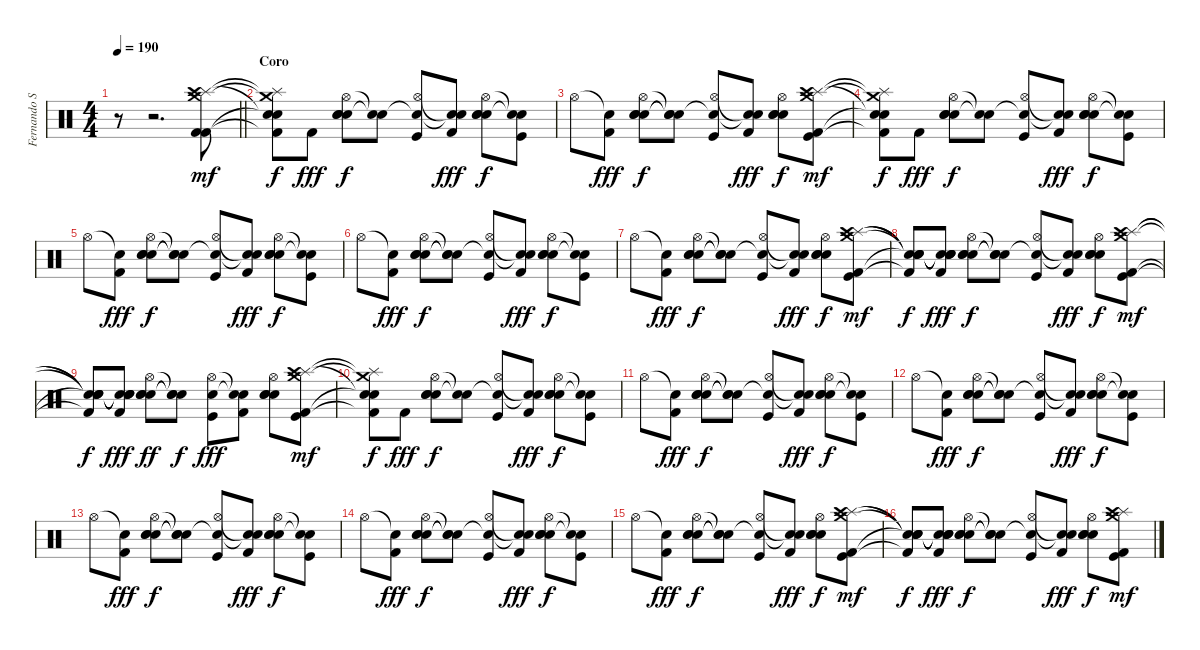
\track ("Fernando Scarcella" "Fernando S") {instrument percussion}
\staff {score}
\articulation defaults
\ts (4 4)
\tempo 190
\clef neutral
\barLineRight lightlight
\ks c
r.8{dy f} r.2{d} ("Crash medium (hit)" "Splash (hit)" "Crash high (hit)" "Kick (hit) 2" "Kick (hit) 2").8{dy mf} |
\section ("" "Coro")
("Crash medium (hit)"{t} "Splash (hit)"{t} "Snare (hit)"{t} "Snare (hit)"{t} "Kick (hit) 2"{t}).8{dy f} "Kick (hit) 2".8{dy fff} ("Hi-Hat (open)" "Electric Snare (hit)" "Electric Snare (hit)" "Electric Snare (hit)").8{dy f} ("Snare (hit)"{t} "Snare (hit)"{t}).8 ("Hi-Hat (open)" "Snare (hit)"{t} "Kick (hit)").8 ("Snare (hit)"{t} "Snare (hit)"{t} "Kick (hit) 2").8{dy fff} ("Hi-Hat (open)" "Electric Snare (hit)" "Electric Snare (hit)" "Electric Snare (hit)").8{dy f} ("Snare (hit)"{t} "Snare (hit)"{t} "Kick (hit)").8 |
"Hi-Hat (open)".8 ("Snare (hit)"{t} "Kick (hit) 2").8{dy fff} ("Hi-Hat (open)" "Electric Snare (hit)" "Electric Snare (hit)" "Electric Snare (hit)").8{dy f} ("Snare (hit)"{t} "Snare (hit)"{t} "Snare (hit)"{t}).8 ("Hi-Hat (open)" "Snare (hit)"{t} "Kick (hit)").8 ("Snare (hit)"{t} "Snare (hit)"{t} "Kick (hit) 2").8{dy fff} ("Hi-Hat (open)" "Electric Snare (hit)" "Electric Snare (hit)" "Electric Snare (hit)").8{dy f} ("Crash medium (hit)" "Splash (hit)" "Crash high (hit)" "Kick (hit) 2" "Kick (hit)").8{dy mf} |
("Crash medium (hit)"{t} "Splash (hit)"{t} "Snare (hit)"{t} "Snare (hit)"{t} "Kick (hit) 2"{t}).8{dy f} "Kick (hit) 2".8{dy fff} ("Hi-Hat (open)" "Electric Snare (hit)" "Electric Snare (hit)" "Electric Snare (hit)").8{dy f} ("Snare (hit)"{t} "Snare (hit)"{t}).8 ("Hi-Hat (open)" "Snare (hit)"{t} "Kick (hit)").8 ("Snare (hit)"{t} "Snare (hit)"{t} "Kick (hit) 2").8{dy fff} ("Hi-Hat (open)" "Electric Snare (hit)" "Electric Snare (hit)" "Electric Snare (hit)").8{dy f} ("Snare (hit)"{t} "Snare (hit)"{t} "Kick (hit)").8 |
"Hi-Hat (open)".8 ("Snare (hit)"{t} "Kick (hit) 2").8{dy fff} ("Hi-Hat (open)" "Electric Snare (hit)" "Electric Snare (hit)" "Electric Snare (hit)").8{dy f} ("Snare (hit)"{t} "Snare (hit)"{t} "Snare (hit)"{t}).8 ("Hi-Hat (open)" "Snare (hit)"{t} "Kick (hit)").8 ("Snare (hit)"{t} "Snare (hit)"{t} "Kick (hit) 2").8{dy fff} ("Hi-Hat (open)" "Electric Snare (hit)" "Electric Snare (hit)" "Electric Snare (hit)").8{dy f} ("Snare (hit)"{t} "Snare (hit)"{t} "Kick (hit)").8 |
"Hi-Hat (open)".8 ("Snare (hit)"{t} "Kick (hit) 2").8{dy fff} ("Hi-Hat (open)" "Electric Snare (hit)" "Electric Snare (hit)" "Electric Snare (hit)").8{dy f} ("Snare (hit)"{t} "Snare (hit)"{t} "Snare (hit)"{t}).8 ("Hi-Hat (open)" "Snare (hit)"{t} "Kick (hit)").8 ("Snare (hit)"{t} "Snare (hit)"{t} "Kick (hit) 2").8{dy fff} ("Hi-Hat (open)" "Electric Snare (hit)" "Electric Snare (hit)" "Electric Snare (hit)").8{dy f} ("Snare (hit)"{t} "Snare (hit)"{t} "Kick (hit)").8 |
"Hi-Hat (open)".8 ("Snare (hit)"{t} "Kick (hit) 2").8{dy fff} ("Hi-Hat (open)" "Electric Snare (hit)" "Electric Snare (hit)" "Electric Snare (hit)").8{dy f} ("Snare (hit)"{t} "Snare (hit)"{t} "Snare (hit)"{t}).8 ("Hi-Hat (open)" "Snare (hit)"{t} "Kick (hit)").8 ("Snare (hit)"{t} "Snare (hit)"{t} "Kick (hit) 2").8{dy fff} ("Hi-Hat (open)" "Electric Snare (hit)" "Electric Snare (hit)" "Electric Snare (hit)").8{dy f} ("Crash medium (hit)" "Splash (hit)" "Crash high (hit)" "Kick (hit) 2" "Kick (hit)").8{dy mf} |
("Snare (hit)"{t} "Snare (hit)"{t} "Snare (hit)"{t} "Snare (hit)"{t} "Kick (hit) 2"{t}).8{dy f} ("Snare (hit)"{t} "Snare (hit)"{t} "Snare (hit)"{t} "Snare (hit)"{t} "Kick (hit) 2").8{dy fff} ("Hi-Hat (open)" "Electric Snare (hit)" "Electric Snare (hit)" "Electric Snare (hit)").8{dy f} ("Snare (hit)"{t} "Snare (hit)"{t} "Snare (hit)"{t}).8 ("Hi-Hat (open)" "Snare (hit)"{t} "Kick (hit)").8 ("Snare (hit)"{t} "Snare (hit)"{t} "Kick (hit) 2").8{dy fff} ("Hi-Hat (open)" "Electric Snare (hit)" "Electric Snare (hit)" "Electric Snare (hit)").8{dy f} ("Crash medium (hit)" "Splash (hit)" "Crash high (hit)" "Kick (hit) 2" "Kick (hit)").8{dy mf} |
("Snare (hit)"{t} "Snare (hit)"{t} "Snare (hit)"{t} "Snare (hit)"{t} "Kick (hit) 2"{t}).8{dy f} ("Snare (hit)"{t} "Snare (hit)"{t} "Snare (hit)"{t} "Snare (hit)"{t} "Kick (hit) 2").8{dy fff} ("Hi-Hat (open)" "Electric Snare (hit)" "Electric Snare (hit)" "Electric Snare (hit)").8{dy ff} ("Snare (hit)"{t} "Snare (hit)"{t} "Snare (hit)"{t}).8{dy f} ("Hi-Hat (open)" "Electric Snare (hit)" "Kick (hit)").8{dy fff} ("Snare (hit)"{t} "Snare (hit)"{t} "Kick (hit) 2").8 ("Hi-Hat (open)" "Electric Snare (hit)" "Electric Snare (hit)" "Electric Snare (hit)").8 ("Crash medium (hit)" "Splash (hit)" "Crash high (hit)" "Kick (hit) 2" "Kick (hit)").8{dy mf} |
("Crash medium (hit)"{t} "Splash (hit)"{t} "Snare (hit)"{t} "Snare (hit)"{t} "Kick (hit) 2"{t}).8{dy f} "Kick (hit) 2".8{dy fff} ("Hi-Hat (open)" "Electric Snare (hit)" "Electric Snare (hit)" "Electric Snare (hit)").8{dy f} ("Snare (hit)"{t} "Snare (hit)"{t}).8 ("Hi-Hat (open)" "Snare (hit)"{t} "Kick (hit)").8 ("Snare (hit)"{t} "Snare (hit)"{t} "Kick (hit) 2").8{dy fff} ("Hi-Hat (open)" "Electric Snare (hit)" "Electric Snare (hit)" "Electric Snare (hit)").8{dy f} ("Snare (hit)"{t} "Snare (hit)"{t} "Kick (hit)").8 |
"Hi-Hat (open)".8 ("Snare (hit)"{t} "Kick (hit) 2").8{dy fff} ("Hi-Hat (open)" "Electric Snare (hit)" "Electric Snare (hit)" "Electric Snare (hit)").8{dy f} ("Snare (hit)"{t} "Snare (hit)"{t} "Snare (hit)"{t}).8 ("Hi-Hat (open)" "Snare (hit)"{t} "Kick (hit)").8 ("Snare (hit)"{t} "Snare (hit)"{t} "Kick (hit) 2").8{dy fff} ("Hi-Hat (open)" "Electric Snare (hit)" "Electric Snare (hit)" "Electric Snare (hit)").8{dy f} ("Snare (hit)"{t} "Snare (hit)"{t} "Kick (hit)").8 |
"Hi-Hat (open)".8 ("Snare (hit)"{t} "Kick (hit) 2").8{dy fff} ("Hi-Hat (open)" "Electric Snare (hit)" "Electric Snare (hit)" "Electric Snare (hit)").8{dy f} ("Snare (hit)"{t} "Snare (hit)"{t} "Snare (hit)"{t}).8 ("Hi-Hat (open)" "Snare (hit)"{t} "Kick (hit)").8 ("Snare (hit)"{t} "Snare (hit)"{t} "Kick (hit) 2").8{dy fff} ("Hi-Hat (open)" "Electric Snare (hit)" "Electric Snare (hit)" "Electric Snare (hit)").8{dy f} ("Snare (hit)"{t} "Snare (hit)"{t} "Kick (hit)").8 |
"Hi-Hat (open)".8 ("Snare (hit)"{t} "Kick (hit) 2").8{dy fff} ("Hi-Hat (open)" "Electric Snare (hit)" "Electric Snare (hit)" "Electric Snare (hit)").8{dy f} ("Snare (hit)"{t} "Snare (hit)"{t} "Snare (hit)"{t}).8 ("Hi-Hat (open)" "Snare (hit)"{t} "Kick (hit)").8 ("Snare (hit)"{t} "Snare (hit)"{t} "Kick (hit) 2").8{dy fff} ("Hi-Hat (open)" "Electric Snare (hit)" "Electric Snare (hit)" "Electric Snare (hit)").8{dy f} ("Snare (hit)"{t} "Snare (hit)"{t} "Kick (hit)").8 |
"Hi-Hat (open)".8 ("Snare (hit)"{t} "Kick (hit) 2").8{dy fff} ("Hi-Hat (open)" "Electric Snare (hit)" "Electric Snare (hit)" "Electric Snare (hit)").8{dy f} ("Snare (hit)"{t} "Snare (hit)"{t} "Snare (hit)"{t}).8 ("Hi-Hat (open)" "Snare (hit)"{t} "Kick (hit)").8 ("Snare (hit)"{t} "Snare (hit)"{t} "Kick (hit) 2").8{dy fff} ("Hi-Hat (open)" "Electric Snare (hit)" "Electric Snare (hit)" "Electric Snare (hit)").8{dy f} ("Snare (hit)"{t} "Snare (hit)"{t} "Kick (hit)").8 |
"Hi-Hat (open)".8 ("Snare (hit)"{t} "Kick (hit) 2").8{dy fff} ("Hi-Hat (open)" "Electric Snare (hit)" "Electric Snare (hit)" "Electric Snare (hit)").8{dy f} ("Snare (hit)"{t} "Snare (hit)"{t} "Snare (hit)"{t}).8 ("Hi-Hat (open)" "Snare (hit)"{t} "Kick (hit)").8 ("Snare (hit)"{t} "Snare (hit)"{t} "Kick (hit) 2").8{dy fff} ("Hi-Hat (open)" "Electric Snare (hit)" "Electric Snare (hit)" "Electric Snare (hit)").8{dy f} ("Crash medium (hit)" "Splash (hit)" "Crash high (hit)" "Kick (hit) 2" "Kick (hit)").8{dy mf} |
("Snare (hit)"{t} "Snare (hit)"{t} "Snare (hit)"{t} "Snare (hit)"{t} "Kick (hit) 2"{t}).8{dy f} ("Snare (hit)"{t} "Snare (hit)"{t} "Snare (hit)"{t} "Snare (hit)"{t} "Kick (hit) 2").8{dy fff} ("Hi-Hat (open)" "Electric Snare (hit)" "Electric Snare (hit)" "Electric Snare (hit)").8{dy f} ("Snare (hit)"{t} "Snare (hit)"{t} "Snare (hit)"{t}).8 ("Hi-Hat (open)" "Snare (hit)"{t} "Kick (hit)").8 ("Snare (hit)"{t} "Snare (hit)"{t} "Kick (hit) 2").8{dy fff} ("Hi-Hat (open)" "Electric Snare (hit)" "Electric Snare (hit)" "Electric Snare (hit)").8{dy f} ("Crash medium (hit)" "Splash (hit)" "Crash high (hit)" "Kick (hit) 2" "Kick (hit)").8{dy mf}
